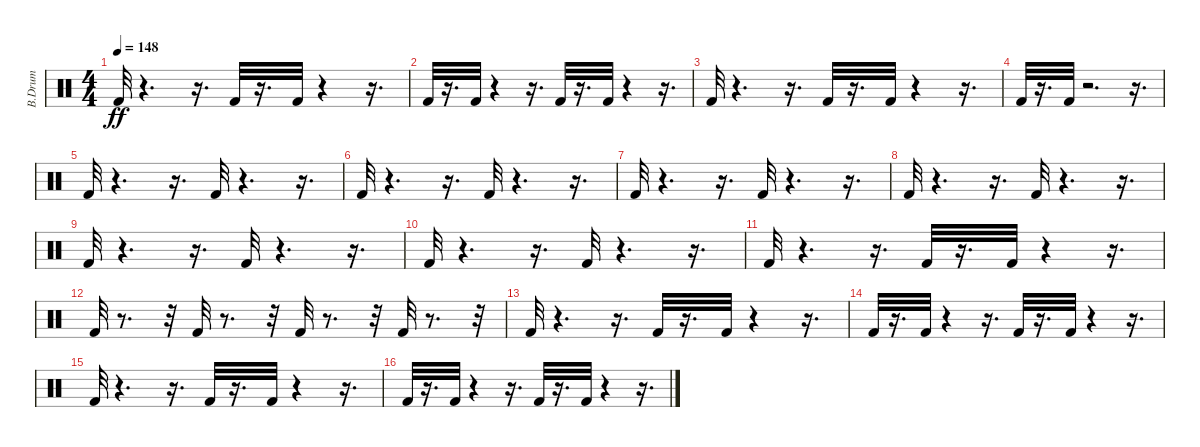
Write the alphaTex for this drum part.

\track ("B.Drum                              " "B.Drum    ") {instrument percussion}
\staff {score}
\articulation defaults
\ts (4 4)
\tempo 148
\clef neutral
\ks c "Kick (hit) 2".32{dy ff}
r.4{d} r.16{d} "Kick (hit) 2".32 r.16{d} "Kick (hit) 2".32 r.4 r.16{d} |
"Kick (hit) 2".32 r.16{d} "Kick (hit) 2".32 r.4 r.16{d} "Kick (hit) 2".32 r.16{d} "Kick (hit) 2".32 r.4 r.16{d} |
"Kick (hit) 2".32 r.4{d} r.16{d} "Kick (hit) 2".32 r.16{d} "Kick (hit) 2".32 r.4 r.16{d} |
"Kick (hit) 2".32 r.16{d} "Kick (hit) 2".32 r.2{d} r.16{d} |
"Kick (hit) 2".32 r.4{d} r.16{d} "Kick (hit) 2".32 r.4{d} r.16{d} |
"Kick (hit) 2".32 r.4{d} r.16{d} "Kick (hit) 2".32 r.4{d} r.16{d} |
"Kick (hit) 2".32 r.4{d} r.16{d} "Kick (hit) 2".32 r.4{d} r.16{d} |
"Kick (hit) 2".32 r.4{d} r.16{d} "Kick (hit) 2".32 r.4{d} r.16{d} |
"Kick (hit) 2".32 r.4{d} r.16{d} "Kick (hit) 2".32 r.4{d} r.16{d} |
"Kick (hit) 2".32 r.4{d} r.16{d} "Kick (hit) 2".32 r.4{d} r.16{d} |
"Kick (hit) 2".32 r.4{d} r.16{d} "Kick (hit) 2".32 r.16{d} "Kick (hit) 2".32 r.4 r.16{d} |
"Kick (hit) 2".32 r.8{d} r.32 "Kick (hit) 2".32 r.8{d} r.32 "Kick (hit) 2".32 r.8{d} r.32 "Kick (hit) 2".32 r.8{d} r.32 |
"Kick (hit) 2".32 r.4{d} r.16{d} "Kick (hit) 2".32 r.16{d} "Kick (hit) 2".32 r.4 r.16{d} |
"Kick (hit) 2".32 r.16{d} "Kick (hit) 2".32 r.4 r.16{d} "Kick (hit) 2".32 r.16{d} "Kick (hit) 2".32 r.4 r.16{d} |
"Kick (hit) 2".32 r.4{d} r.16{d} "Kick (hit) 2".32 r.16{d} "Kick (hit) 2".32 r.4 r.16{d} |
"Kick (hit) 2".32 r.16{d} "Kick (hit) 2".32 r.4 r.16{d} "Kick (hit) 2".32 r.16{d} "Kick (hit) 2".32 r.4 r.16{d}
